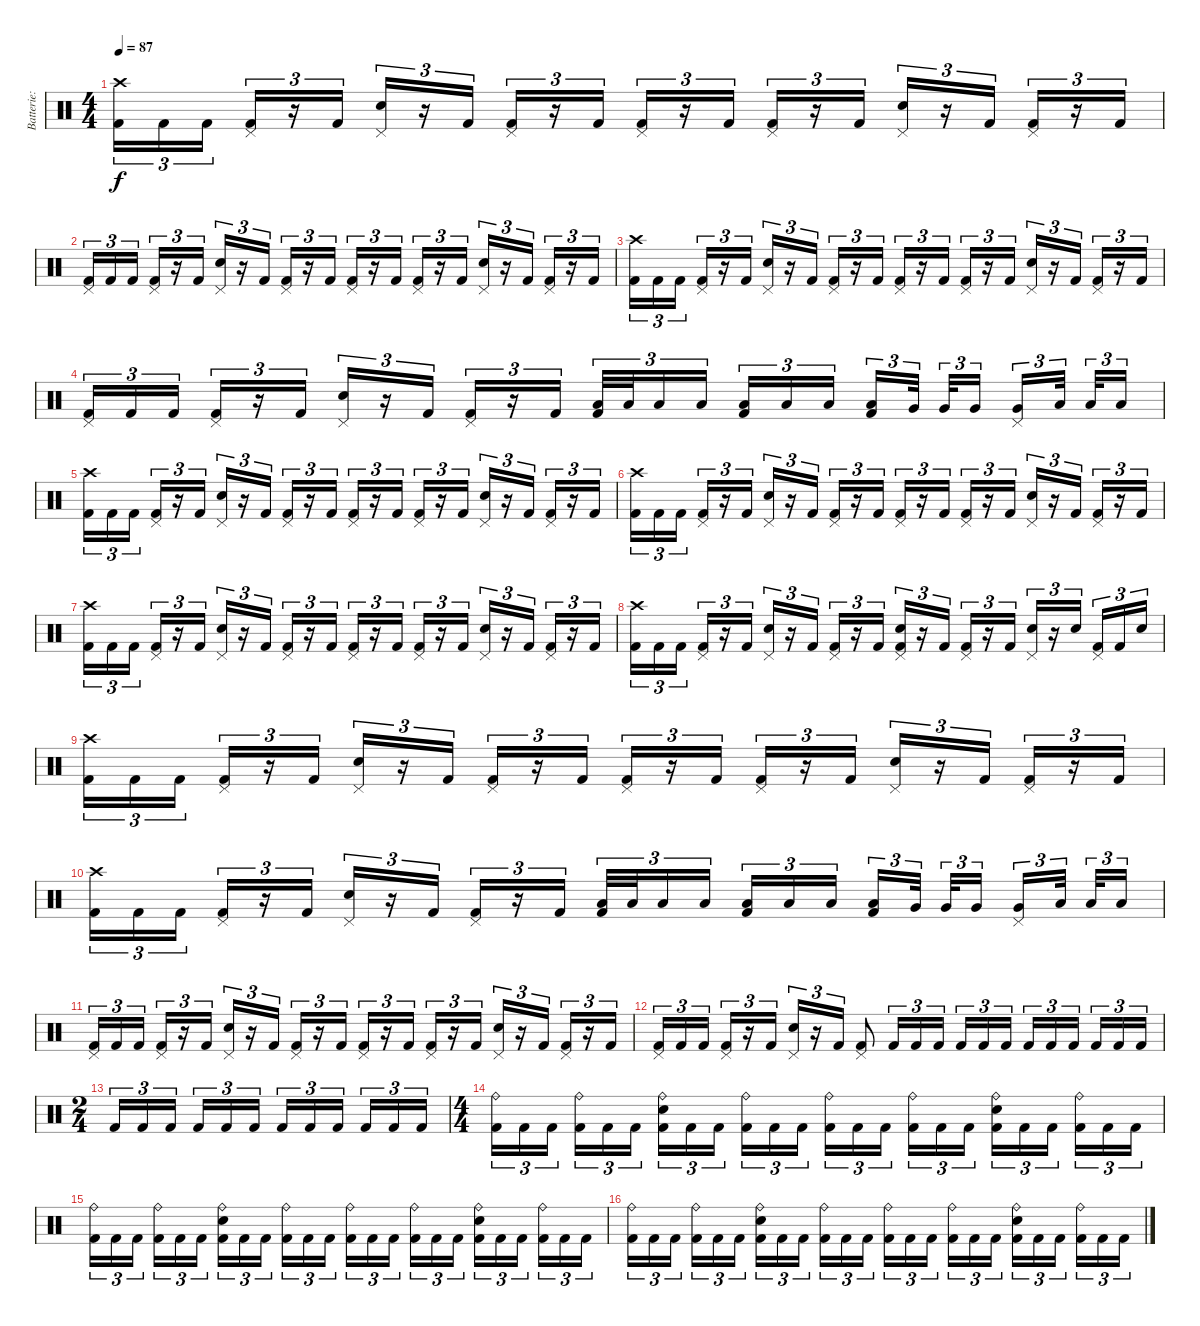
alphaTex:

\track ("Batterie: Paul" "Batterie: ") {instrument percussion}
\staff {score}
\articulation defaults
\ts (4 4)
\tempo 87
\clef neutral
\ks c
("Crash high (hit)" "Kick (hit) 2").16{tu (3 2) dy f} "Kick (hit) 2".16{tu (3 2)} "Kick (hit) 2".16{tu (3 2)} ("Pedal Hi-Hat (hit)" "Kick (hit) 2").16{tu (3 2)} r.16{tu (3 2)} "Kick (hit) 2".16{tu (3 2)} ("Pedal Hi-Hat (hit)" "Snare (hit) 2").16{tu (3 2)} r.16{tu (3 2)} "Kick (hit) 2".16{tu (3 2)} ("Pedal Hi-Hat (hit)" "Kick (hit) 2").16{tu (3 2)} r.16{tu (3 2)} "Kick (hit) 2".16{tu (3 2)} ("Pedal Hi-Hat (hit)" "Kick (hit) 2").16{tu (3 2)} r.16{tu (3 2)} "Kick (hit) 2".16{tu (3 2)} ("Pedal Hi-Hat (hit)" "Kick (hit) 2").16{tu (3 2)} r.16{tu (3 2)} "Kick (hit) 2".16{tu (3 2)} ("Pedal Hi-Hat (hit)" "Snare (hit) 2").16{tu (3 2)} r.16{tu (3 2)} "Kick (hit) 2".16{tu (3 2)} ("Pedal Hi-Hat (hit)" "Kick (hit) 2").16{tu (3 2)} r.16{tu (3 2)} "Kick (hit) 2".16{tu (3 2)} |
("Pedal Hi-Hat (hit)" "Kick (hit) 2").16{tu (3 2)} "Kick (hit) 2".16{tu (3 2)} "Kick (hit) 2".16{tu (3 2)} ("Pedal Hi-Hat (hit)" "Kick (hit) 2").16{tu (3 2)} r.16{tu (3 2)} "Kick (hit) 2".16{tu (3 2)} ("Pedal Hi-Hat (hit)" "Snare (hit) 2").16{tu (3 2)} r.16{tu (3 2)} "Kick (hit) 2".16{tu (3 2)} ("Pedal Hi-Hat (hit)" "Kick (hit) 2").16{tu (3 2)} r.16{tu (3 2)} "Kick (hit) 2".16{tu (3 2)} ("Pedal Hi-Hat (hit)" "Kick (hit) 2").16{tu (3 2)} r.16{tu (3 2)} "Kick (hit) 2".16{tu (3 2)} ("Pedal Hi-Hat (hit)" "Kick (hit) 2").16{tu (3 2)} r.16{tu (3 2)} "Kick (hit) 2".16{tu (3 2)} ("Pedal Hi-Hat (hit)" "Snare (hit) 2").16{tu (3 2)} r.16{tu (3 2)} "Kick (hit) 2".16{tu (3 2)} ("Pedal Hi-Hat (hit)" "Kick (hit) 2").16{tu (3 2)} r.16{tu (3 2)} "Kick (hit) 2".16{tu (3 2)} |
("Crash high (hit)" "Kick (hit) 2").16{tu (3 2)} "Kick (hit) 2".16{tu (3 2)} "Kick (hit) 2".16{tu (3 2)} ("Pedal Hi-Hat (hit)" "Kick (hit) 2").16{tu (3 2)} r.16{tu (3 2)} "Kick (hit) 2".16{tu (3 2)} ("Pedal Hi-Hat (hit)" "Snare (hit) 2").16{tu (3 2)} r.16{tu (3 2)} "Kick (hit) 2".16{tu (3 2)} ("Pedal Hi-Hat (hit)" "Kick (hit) 2").16{tu (3 2)} r.16{tu (3 2)} "Kick (hit) 2".16{tu (3 2)} ("Pedal Hi-Hat (hit)" "Kick (hit) 2").16{tu (3 2)} r.16{tu (3 2)} "Kick (hit) 2".16{tu (3 2)} ("Pedal Hi-Hat (hit)" "Kick (hit) 2").16{tu (3 2)} r.16{tu (3 2)} "Kick (hit) 2".16{tu (3 2)} ("Pedal Hi-Hat (hit)" "Snare (hit) 2").16{tu (3 2)} r.16{tu (3 2)} "Kick (hit) 2".16{tu (3 2)} ("Pedal Hi-Hat (hit)" "Kick (hit) 2").16{tu (3 2)} r.16{tu (3 2)} "Kick (hit) 2".16{tu (3 2)} |
("Pedal Hi-Hat (hit)" "Kick (hit) 2").16{tu (3 2)} "Kick (hit) 2".16{tu (3 2)} "Kick (hit) 2".16{tu (3 2)} ("Pedal Hi-Hat (hit)" "Kick (hit) 2").16{tu (3 2)} r.16{tu (3 2)} "Kick (hit) 2".16{tu (3 2)} ("Pedal Hi-Hat (hit)" "Snare (hit) 2").16{tu (3 2)} r.16{tu (3 2)} "Kick (hit) 2".16{tu (3 2)} ("Pedal Hi-Hat (hit)" "Kick (hit) 2").16{tu (3 2)} r.16{tu (3 2)} "Kick (hit) 2".16{tu (3 2)} ("Low Tom (hit)" "Kick (hit) 2").32{tu (3 2)} "Low Tom (hit)".32{tu (3 2)} "Low Tom (hit)".16{tu (3 2)} "Low Tom (hit)".16{tu (3 2)} ("Low Tom (hit)" "Kick (hit) 2").16{tu (3 2)} "Low Tom (hit)".16{tu (3 2)} "Low Tom (hit)".16{tu (3 2)} ("Low Tom (hit)" "Kick (hit) 2").16{tu (3 2)} "Very Low Tom (hit)".32{tu (3 2)} "Very Low Tom (hit)".32{tu (3 2)} "Very Low Tom (hit)".16{tu (3 2)} ("Pedal Hi-Hat (hit)" "Very Low Tom (hit)").16{tu (3 2)} "Low Floor Tom (hit)".32{tu (3 2)} "Low Floor Tom (hit)".32{tu (3 2)} "Low Floor Tom (hit)".16{tu (3 2)} |
("Crash high (hit)" "Kick (hit) 2").16{tu (3 2)} "Kick (hit) 2".16{tu (3 2)} "Kick (hit) 2".16{tu (3 2)} ("Pedal Hi-Hat (hit)" "Kick (hit) 2").16{tu (3 2)} r.16{tu (3 2)} "Kick (hit) 2".16{tu (3 2)} ("Pedal Hi-Hat (hit)" "Snare (hit) 2").16{tu (3 2)} r.16{tu (3 2)} "Kick (hit) 2".16{tu (3 2)} ("Pedal Hi-Hat (hit)" "Kick (hit) 2").16{tu (3 2)} r.16{tu (3 2)} "Kick (hit) 2".16{tu (3 2)} ("Pedal Hi-Hat (hit)" "Kick (hit) 2").16{tu (3 2)} r.16{tu (3 2)} "Kick (hit) 2".16{tu (3 2)} ("Pedal Hi-Hat (hit)" "Kick (hit) 2").16{tu (3 2)} r.16{tu (3 2)} "Kick (hit) 2".16{tu (3 2)} ("Pedal Hi-Hat (hit)" "Snare (hit) 2").16{tu (3 2)} r.16{tu (3 2)} "Kick (hit) 2".16{tu (3 2)} ("Pedal Hi-Hat (hit)" "Kick (hit) 2").16{tu (3 2)} r.16{tu (3 2)} "Kick (hit) 2".16{tu (3 2)} |
("Crash high (hit)" "Kick (hit) 2").16{tu (3 2)} "Kick (hit) 2".16{tu (3 2)} "Kick (hit) 2".16{tu (3 2)} ("Pedal Hi-Hat (hit)" "Kick (hit) 2").16{tu (3 2)} r.16{tu (3 2)} "Kick (hit) 2".16{tu (3 2)} ("Pedal Hi-Hat (hit)" "Snare (hit) 2").16{tu (3 2)} r.16{tu (3 2)} "Kick (hit) 2".16{tu (3 2)} ("Pedal Hi-Hat (hit)" "Kick (hit) 2").16{tu (3 2)} r.16{tu (3 2)} "Kick (hit) 2".16{tu (3 2)} ("Pedal Hi-Hat (hit)" "Kick (hit) 2").16{tu (3 2)} r.16{tu (3 2)} "Kick (hit) 2".16{tu (3 2)} ("Pedal Hi-Hat (hit)" "Kick (hit) 2").16{tu (3 2)} r.16{tu (3 2)} "Kick (hit) 2".16{tu (3 2)} ("Pedal Hi-Hat (hit)" "Snare (hit) 2").16{tu (3 2)} r.16{tu (3 2)} "Kick (hit) 2".16{tu (3 2)} ("Pedal Hi-Hat (hit)" "Kick (hit) 2").16{tu (3 2)} r.16{tu (3 2)} "Kick (hit) 2".16{tu (3 2)} |
("Crash high (hit)" "Kick (hit) 2").16{tu (3 2)} "Kick (hit) 2".16{tu (3 2)} "Kick (hit) 2".16{tu (3 2)} ("Pedal Hi-Hat (hit)" "Kick (hit) 2").16{tu (3 2)} r.16{tu (3 2)} "Kick (hit) 2".16{tu (3 2)} ("Pedal Hi-Hat (hit)" "Snare (hit) 2").16{tu (3 2)} r.16{tu (3 2)} "Kick (hit) 2".16{tu (3 2)} ("Pedal Hi-Hat (hit)" "Kick (hit) 2").16{tu (3 2)} r.16{tu (3 2)} "Kick (hit) 2".16{tu (3 2)} ("Pedal Hi-Hat (hit)" "Kick (hit) 2").16{tu (3 2)} r.16{tu (3 2)} "Kick (hit) 2".16{tu (3 2)} ("Pedal Hi-Hat (hit)" "Kick (hit) 2").16{tu (3 2)} r.16{tu (3 2)} "Kick (hit) 2".16{tu (3 2)} ("Pedal Hi-Hat (hit)" "Snare (hit) 2").16{tu (3 2)} r.16{tu (3 2)} "Kick (hit) 2".16{tu (3 2)} ("Pedal Hi-Hat (hit)" "Kick (hit) 2").16{tu (3 2)} r.16{tu (3 2)} "Kick (hit) 2".16{tu (3 2)} |
("Crash high (hit)" "Kick (hit) 2").16{tu (3 2)} "Kick (hit) 2".16{tu (3 2)} "Kick (hit) 2".16{tu (3 2)} ("Pedal Hi-Hat (hit)" "Kick (hit) 2").16{tu (3 2)} r.16{tu (3 2)} "Kick (hit) 2".16{tu (3 2)} ("Pedal Hi-Hat (hit)" "Snare (hit) 2").16{tu (3 2)} r.16{tu (3 2)} "Kick (hit) 2".16{tu (3 2)} ("Pedal Hi-Hat (hit)" "Kick (hit) 2").16{tu (3 2)} r.16{tu (3 2)} "Kick (hit) 2".16{tu (3 2)} ("Pedal Hi-Hat (hit)" "Snare (hit) 2" "Kick (hit) 2").16{tu (3 2)} r.16{tu (3 2)} "Kick (hit) 2".16{tu (3 2)} ("Pedal Hi-Hat (hit)" "Kick (hit) 2").16{tu (3 2)} r.16{tu (3 2)} "Kick (hit) 2".16{tu (3 2)} ("Pedal Hi-Hat (hit)" "Snare (hit) 2").16{tu (3 2)} r.16{tu (3 2)} "Snare (hit) 2".16{tu (3 2)} ("Pedal Hi-Hat (hit)" "Kick (hit) 2").16{tu (3 2)} "Kick (hit) 2".16{tu (3 2)} "Snare (hit) 2".16{tu (3 2)} |
("Crash high (hit)" "Kick (hit) 2").16{tu (3 2)} "Kick (hit) 2".16{tu (3 2)} "Kick (hit) 2".16{tu (3 2)} ("Pedal Hi-Hat (hit)" "Kick (hit) 2").16{tu (3 2)} r.16{tu (3 2)} "Kick (hit) 2".16{tu (3 2)} ("Pedal Hi-Hat (hit)" "Snare (hit) 2").16{tu (3 2)} r.16{tu (3 2)} "Kick (hit) 2".16{tu (3 2)} ("Pedal Hi-Hat (hit)" "Kick (hit) 2").16{tu (3 2)} r.16{tu (3 2)} "Kick (hit) 2".16{tu (3 2)} ("Pedal Hi-Hat (hit)" "Kick (hit) 2").16{tu (3 2)} r.16{tu (3 2)} "Kick (hit) 2".16{tu (3 2)} ("Pedal Hi-Hat (hit)" "Kick (hit) 2").16{tu (3 2)} r.16{tu (3 2)} "Kick (hit) 2".16{tu (3 2)} ("Pedal Hi-Hat (hit)" "Snare (hit) 2").16{tu (3 2)} r.16{tu (3 2)} "Kick (hit) 2".16{tu (3 2)} ("Pedal Hi-Hat (hit)" "Kick (hit) 2").16{tu (3 2)} r.16{tu (3 2)} "Kick (hit) 2".16{tu (3 2)} |
("Crash high (hit)" "Kick (hit) 2").16{tu (3 2)} "Kick (hit) 2".16{tu (3 2)} "Kick (hit) 2".16{tu (3 2)} ("Pedal Hi-Hat (hit)" "Kick (hit) 2").16{tu (3 2)} r.16{tu (3 2)} "Kick (hit) 2".16{tu (3 2)} ("Pedal Hi-Hat (hit)" "Snare (hit) 2").16{tu (3 2)} r.16{tu (3 2)} "Kick (hit) 2".16{tu (3 2)} ("Pedal Hi-Hat (hit)" "Kick (hit) 2").16{tu (3 2)} r.16{tu (3 2)} "Kick (hit) 2".16{tu (3 2)} ("Low Tom (hit)" "Kick (hit) 2").32{tu (3 2)} "Low Tom (hit)".32{tu (3 2)} "Low Tom (hit)".16{tu (3 2)} "Low Tom (hit)".16{tu (3 2)} ("Low Tom (hit)" "Kick (hit) 2").16{tu (3 2)} "Low Tom (hit)".16{tu (3 2)} "Low Tom (hit)".16{tu (3 2)} ("Low Tom (hit)" "Kick (hit) 2").16{tu (3 2)} "Very Low Tom (hit)".32{tu (3 2)} "Very Low Tom (hit)".32{tu (3 2)} "Very Low Tom (hit)".16{tu (3 2)} ("Pedal Hi-Hat (hit)" "Very Low Tom (hit)").16{tu (3 2)} "Low Floor Tom (hit)".32{tu (3 2)} "Low Floor Tom (hit)".32{tu (3 2)} "Low Floor Tom (hit)".16{tu (3 2)} |
("Pedal Hi-Hat (hit)" "Kick (hit) 2").16{tu (3 2)} "Kick (hit) 2".16{tu (3 2)} "Kick (hit) 2".16{tu (3 2)} ("Pedal Hi-Hat (hit)" "Kick (hit) 2").16{tu (3 2)} r.16{tu (3 2)} "Kick (hit) 2".16{tu (3 2)} ("Pedal Hi-Hat (hit)" "Snare (hit) 2").16{tu (3 2)} r.16{tu (3 2)} "Kick (hit) 2".16{tu (3 2)} ("Pedal Hi-Hat (hit)" "Kick (hit) 2").16{tu (3 2)} r.16{tu (3 2)} "Kick (hit) 2".16{tu (3 2)} ("Pedal Hi-Hat (hit)" "Kick (hit) 2").16{tu (3 2)} r.16{tu (3 2)} "Kick (hit) 2".16{tu (3 2)} ("Pedal Hi-Hat (hit)" "Kick (hit) 2").16{tu (3 2)} r.16{tu (3 2)} "Kick (hit) 2".16{tu (3 2)} ("Pedal Hi-Hat (hit)" "Snare (hit) 2").16{tu (3 2)} r.16{tu (3 2)} "Kick (hit) 2".16{tu (3 2)} ("Pedal Hi-Hat (hit)" "Kick (hit) 2").16{tu (3 2)} r.16{tu (3 2)} "Kick (hit) 2".16{tu (3 2)} |
("Pedal Hi-Hat (hit)" "Kick (hit) 2").16{tu (3 2)} "Kick (hit) 2".16{tu (3 2)} "Kick (hit) 2".16{tu (3 2)} ("Pedal Hi-Hat (hit)" "Kick (hit) 2").16{tu (3 2)} r.16{tu (3 2)} "Kick (hit) 2".16{tu (3 2)} ("Pedal Hi-Hat (hit)" "Snare (hit) 2").16{tu (3 2)} r.16{tu (3 2)} "Kick (hit) 2".16{tu (3 2)} ("Pedal Hi-Hat (hit)" "Kick (hit) 2").8 "Kick (hit) 2".16{tu (3 2)} "Kick (hit) 2".16{tu (3 2)} "Kick (hit) 2".16{tu (3 2)} "Kick (hit) 2".16{tu (3 2)} "Kick (hit) 2".16{tu (3 2)} "Kick (hit) 2".16{tu (3 2)} "Kick (hit) 2".16{tu (3 2)} "Kick (hit) 2".16{tu (3 2)} "Kick (hit) 2".16{tu (3 2)} "Kick (hit) 2".16{tu (3 2)} "Kick (hit) 2".16{tu (3 2)} "Kick (hit) 2".16{tu (3 2)} |
\ts (2 4)
"Kick (hit) 2".16{tu (3 2)} "Kick (hit) 2".16{tu (3 2)} "Kick (hit) 2".16{tu (3 2)} "Kick (hit) 2".16{tu (3 2)} "Kick (hit) 2".16{tu (3 2)} "Kick (hit) 2".16{tu (3 2)} "Kick (hit) 2".16{tu (3 2)} "Kick (hit) 2".16{tu (3 2)} "Kick (hit) 2".16{tu (3 2)} "Kick (hit) 2".16{tu (3 2)} "Kick (hit) 2".16{tu (3 2)} "Kick (hit) 2".16{tu (3 2)} |
\ts (4 4)
("Ride (bell)" "Kick (hit) 2").16{tu (3 2)} "Kick (hit) 2".16{tu (3 2)} "Kick (hit) 2".16{tu (3 2)} ("Ride (bell)" "Kick (hit) 2").16{tu (3 2)} "Kick (hit) 2".16{tu (3 2)} "Kick (hit) 2".16{tu (3 2)} ("Ride (bell)" "Snare (hit) 2" "Kick (hit) 2").16{tu (3 2)} "Kick (hit) 2".16{tu (3 2)} "Kick (hit) 2".16{tu (3 2)} ("Ride (bell)" "Kick (hit) 2").16{tu (3 2)} "Kick (hit) 2".16{tu (3 2)} "Kick (hit) 2".16{tu (3 2)} ("Ride (bell)" "Kick (hit) 2").16{tu (3 2)} "Kick (hit) 2".16{tu (3 2)} "Kick (hit) 2".16{tu (3 2)} ("Ride (bell)" "Kick (hit) 2").16{tu (3 2)} "Kick (hit) 2".16{tu (3 2)} "Kick (hit) 2".16{tu (3 2)} ("Ride (bell)" "Snare (hit) 2" "Kick (hit) 2").16{tu (3 2)} "Kick (hit) 2".16{tu (3 2)} "Kick (hit) 2".16{tu (3 2)} ("Ride (bell)" "Kick (hit) 2").16{tu (3 2)} "Kick (hit) 2".16{tu (3 2)} "Kick (hit) 2".16{tu (3 2)} |
("Ride (bell)" "Kick (hit) 2").16{tu (3 2)} "Kick (hit) 2".16{tu (3 2)} "Kick (hit) 2".16{tu (3 2)} ("Ride (bell)" "Kick (hit) 2").16{tu (3 2)} "Kick (hit) 2".16{tu (3 2)} "Kick (hit) 2".16{tu (3 2)} ("Ride (bell)" "Snare (hit) 2" "Kick (hit) 2").16{tu (3 2)} "Kick (hit) 2".16{tu (3 2)} "Kick (hit) 2".16{tu (3 2)} ("Ride (bell)" "Kick (hit) 2").16{tu (3 2)} "Kick (hit) 2".16{tu (3 2)} "Kick (hit) 2".16{tu (3 2)} ("Ride (bell)" "Kick (hit) 2").16{tu (3 2)} "Kick (hit) 2".16{tu (3 2)} "Kick (hit) 2".16{tu (3 2)} ("Ride (bell)" "Kick (hit) 2").16{tu (3 2)} "Kick (hit) 2".16{tu (3 2)} "Kick (hit) 2".16{tu (3 2)} ("Ride (bell)" "Snare (hit) 2" "Kick (hit) 2").16{tu (3 2)} "Kick (hit) 2".16{tu (3 2)} "Kick (hit) 2".16{tu (3 2)} ("Ride (bell)" "Kick (hit) 2").16{tu (3 2)} "Kick (hit) 2".16{tu (3 2)} "Kick (hit) 2".16{tu (3 2)} |
("Ride (bell)" "Kick (hit) 2").16{tu (3 2)} "Kick (hit) 2".16{tu (3 2)} "Kick (hit) 2".16{tu (3 2)} ("Ride (bell)" "Kick (hit) 2").16{tu (3 2)} "Kick (hit) 2".16{tu (3 2)} "Kick (hit) 2".16{tu (3 2)} ("Ride (bell)" "Snare (hit) 2" "Kick (hit) 2").16{tu (3 2)} "Kick (hit) 2".16{tu (3 2)} "Kick (hit) 2".16{tu (3 2)} ("Ride (bell)" "Kick (hit) 2").16{tu (3 2)} "Kick (hit) 2".16{tu (3 2)} "Kick (hit) 2".16{tu (3 2)} ("Ride (bell)" "Kick (hit) 2").16{tu (3 2)} "Kick (hit) 2".16{tu (3 2)} "Kick (hit) 2".16{tu (3 2)} ("Ride (bell)" "Kick (hit) 2").16{tu (3 2)} "Kick (hit) 2".16{tu (3 2)} "Kick (hit) 2".16{tu (3 2)} ("Ride (bell)" "Snare (hit) 2" "Kick (hit) 2").16{tu (3 2)} "Kick (hit) 2".16{tu (3 2)} "Kick (hit) 2".16{tu (3 2)} ("Ride (bell)" "Kick (hit) 2").16{tu (3 2)} "Kick (hit) 2".16{tu (3 2)} "Kick (hit) 2".16{tu (3 2)}
